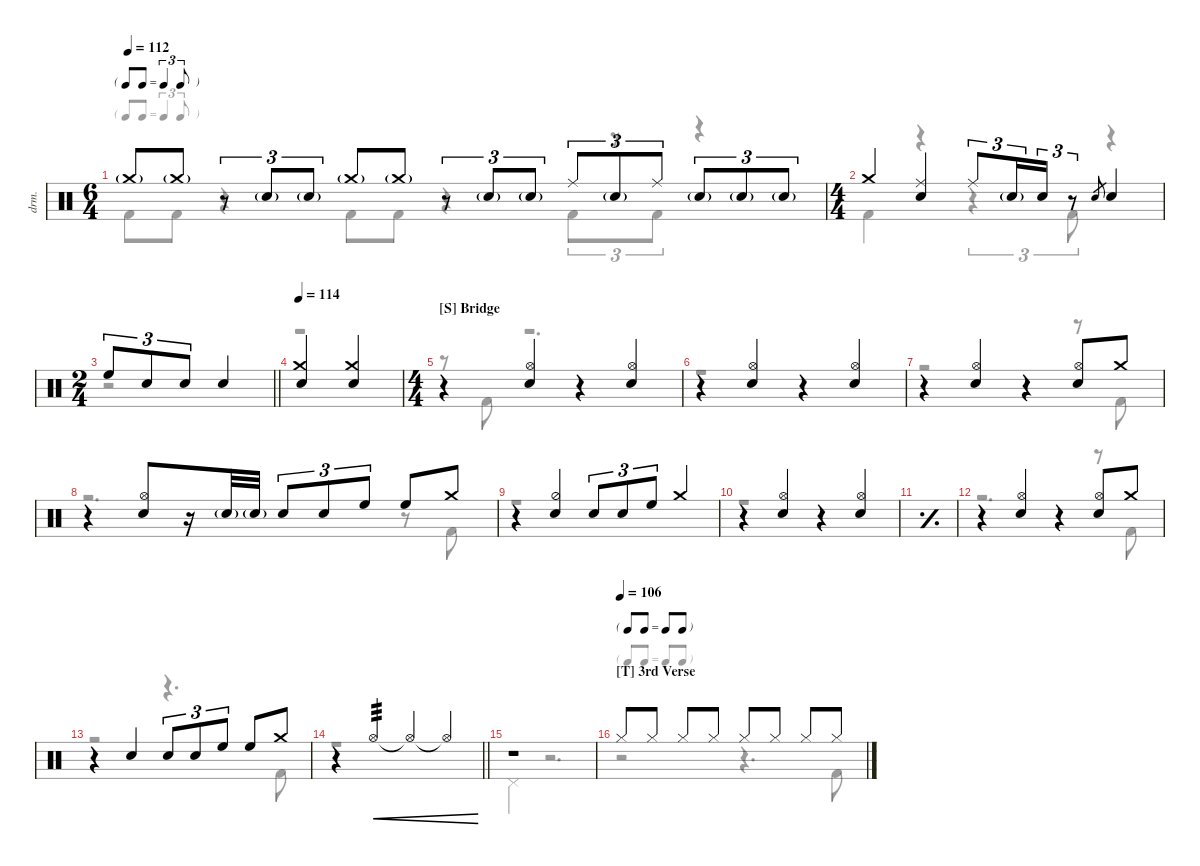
\defaultSystemsLayout 4
\hideDynamics
\bracketExtendMode nobrackets
\track ("Drums" "drm.") {instrument percussion}
\staff {score}
\articulation defaults
\voice
\ts (6 4)
\beaming (8 6 6)
\tf triplet8th
\tempo 112
\clef neutral
\ks c "Crash medium (hit)"{g}.8{dy mf} "Crash medium (hit)"{g}.8
r.8{tu (3 2)} "Snare (hit) 2"{g}.8{tu (3 2)} "Snare (hit) 2"{g}.8{tu (3 2)} "Crash medium (hit)"{g}.8 "Crash medium (hit)"{g}.8 r.8{tu (3 2)} "Snare (hit) 2"{g}.8{tu (3 2)} "Snare (hit) 2"{g}.8{tu (3 2)} "Ride (middle)".8{tu (3 2)} "Snare (hit) 2"{g}.8{tu (3 2)} "Ride (middle)".8{tu (3 2)} "Snare (hit) 2"{g}.8{tu (3 2)} "Snare (hit) 2"{g}.8{tu (3 2)} "Snare (hit) 2"{g}.8{tu (3 2)} |
\ts (4 4)
\beaming (8 2 2 2 2)
"Crash medium (hit)".4 ("Ride (middle)" "Snare (hit) 2").4 "Ride (middle)".8{tu (3 2)} "Snare (hit) 2"{g}.16{tu (3 2) beam merge} "Snare (hit) 2".16{tu (3 2)} r.8{tu (3 2)} "Snare (hit) 2".8{tu (3 2) gr} "Snare (hit) 2".4 |
\ts (2 4)
\beaming (8 2 2)
\scale
0.511209
\barLineRight lightlight "High Floor Tom (hit)".8{tu (3 2)} "Snare (hit) 2".8{tu (3 2)} "Snare (hit) 2".8{tu (3 2)} "Snare (hit) 2".4
|
\tempo 114
\scale
0.488791 ("Snare (hit) 2" "Crash medium (hit)").4 ("Crash medium (hit)" "Snare (hit) 2").4 |
\ts (4 4)
\beaming (8 2 2 2 2)
\section ("S" "Bridge")
\scale
0.511206 r.4 ("Hi-Hat (open)" "Snare (hit) 2").4 r.4 ("Hi-Hat (open)" "Snare (hit) 2").4 |
\scale
0.488794 r.4 ("Hi-Hat (open)" "Snare (hit) 2").4 r.4 ("Hi-Hat (open)" "Snare (hit) 2").4 |
\scale
0.511203 r.4 ("Hi-Hat (open)" "Snare (hit) 2").4 r.4 ("Hi-Hat (open)" "Snare (hit) 2").8 "Crash medium (hit)".8 |
\scale
0.488797 r.4 ("Hi-Hat (open)" "Snare (hit) 2").8 r.16 "Snare (hit) 2"{g}.32 "Snare (hit) 2"{g}.32 "Snare (hit) 2".8{tu (3 2)} "Snare (hit) 2".8{tu (3 2)} "High Floor Tom (hit)".8{tu (3 2)} "High Floor Tom (hit)".8 "Crash medium (hit)".8 |
r.4 ("Hi-Hat (half)" "Snare (hit) 2").4 "Snare (hit) 2".8{tu (3 2)} "Snare (hit) 2".8{tu (3 2)} "High Floor Tom (hit)".8{tu (3 2)} "Crash medium (hit)".4 |
r.4 ("Hi-Hat (open)" "Snare (hit) 2").4 r.4 ("Snare (hit) 2" "Hi-Hat (open)").4 |
\simile simple
|
\simile none
r.4 ("Hi-Hat (open)" "Snare (hit) 2").4 r.4 ("Hi-Hat (open)" "Snare (hit) 2").8 "Crash medium (hit)".8 |
r.4 "Snare (hit) 2".4 "Snare (hit) 2".8{tu (3 2)} "Snare (hit) 2".8{tu (3 2)} "High Floor Tom (hit)".8{tu (3 2)} "High Floor Tom (hit)".8 "Crash medium (hit)".8 |
\barLineRight lightlight
r.4 "Hi-Hat (open)".4{tp 3 cre} "Hi-Hat (open)"{t}.4{cre} "Hi-Hat (open)"{t}.4{cre} |
r.1 |
\tf none
\section ("T" "3rd Verse")
\tempo (106)
"Hi-Hat (closed)".8 "Hi-Hat (closed)".8 "Hi-Hat (closed)".8 "Hi-Hat (closed)".8 "Hi-Hat (closed)".8 "Hi-Hat (closed)".8 "Hi-Hat (closed)".8 "Hi-Hat (closed)".8
\voice
\clef neutral
\ottava regular
\simile none
\ks c "Kick (hit) 2".8{dy mf} "Kick (hit) 2".8
r.4 "Kick (hit) 2".8 "Kick (hit) 2".8 r.4 "Kick (hit) 2".8{tu (3 2)} r.8{tu (3 2)} "Kick (hit) 2".8{tu (3 2)} r.4 |
"Kick (hit) 2".4 r.4 r.4{tu (3 2)} "Kick (hit) 2".8{tu (3 2)} r.4 |
\scale
0.511209
\barLineRight lightlight
r.2 |
\scale
0.488791 r.2 |
\scale
0.511206 r.8 "Kick (hit) 2".8 r.2{d} |
\scale
0.488794 r.1 |
\scale
0.511203 r.2 r.4 r.8 "Kick (hit) 2".8 |
\scale
0.488797 r.2{d} r.8 "Kick (hit) 2".8 |
r.1 |
r.1 |
\simile simple
|
\simile none
r.2{d} r.8 "Kick (hit) 2".8 |
r.2 r.4{d} "Kick (hit) 2".8 |
\barLineRight lightlight
r.1 |
"Pedal Hi-Hat (hit)".4 r.2{d} |
r.2 r.4{d} "Kick (hit) 2".8
